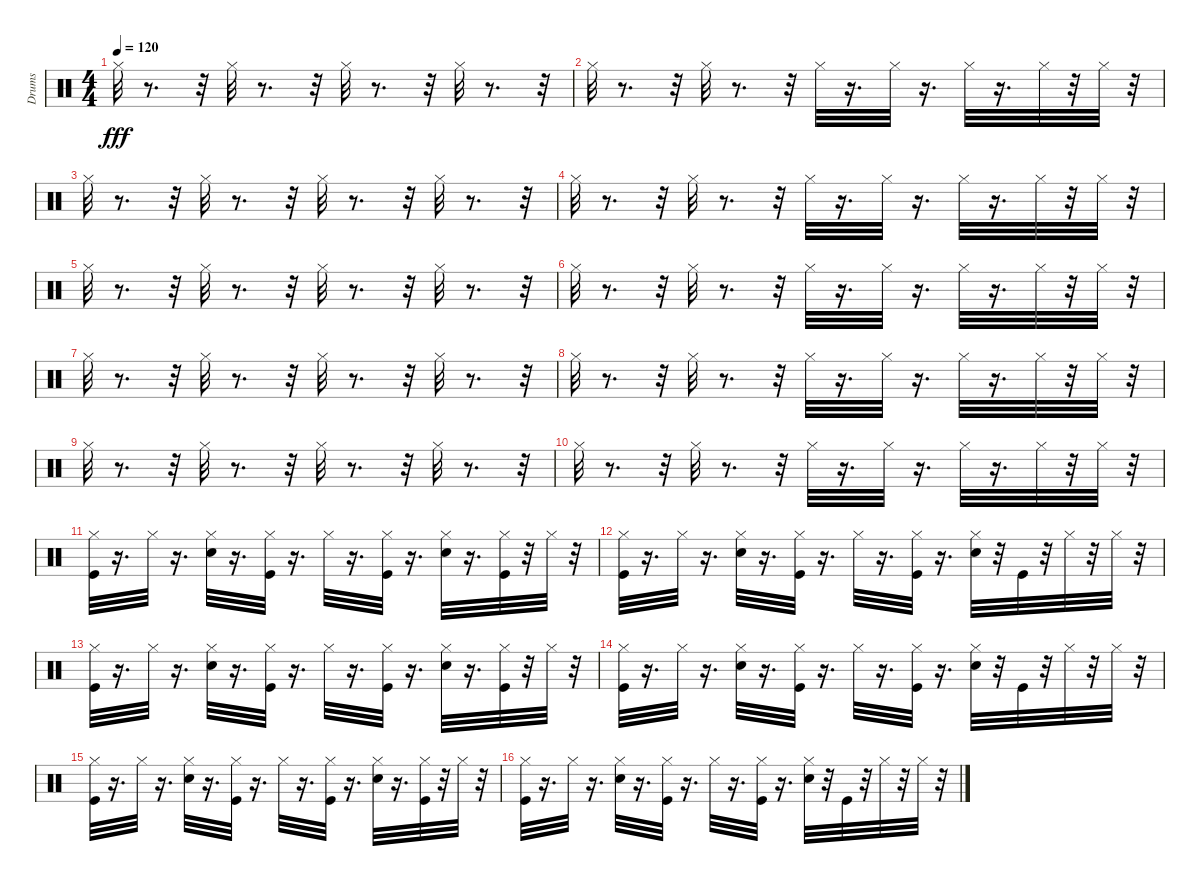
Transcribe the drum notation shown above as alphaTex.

\track ("Drums" "Drums") {solo instrument percussion}
\staff {score}
\articulation defaults
\ts (4 4)
\tempo 120
\clef neutral
\ks c "Hi-Hat (closed)".32{dy fff}
r.8{d} r.32 "Hi-Hat (closed)".32 r.8{d} r.32 "Hi-Hat (closed)".32 r.8{d} r.32 "Hi-Hat (closed)".32 r.8{d} r.32 |
"Hi-Hat (closed)".32 r.8{d} r.32 "Hi-Hat (closed)".32 r.8{d} r.32 "Hi-Hat (closed)".32 r.16{d} "Hi-Hat (closed)".32 r.16{d} "Hi-Hat (closed)".32 r.16{d} "Hi-Hat (closed)".32 r.32 "Hi-Hat (closed)".32 r.32 |
"Hi-Hat (closed)".32 r.8{d} r.32 "Hi-Hat (closed)".32 r.8{d} r.32 "Hi-Hat (closed)".32 r.8{d} r.32 "Hi-Hat (closed)".32 r.8{d} r.32 |
"Hi-Hat (closed)".32 r.8{d} r.32 "Hi-Hat (closed)".32 r.8{d} r.32 "Hi-Hat (closed)".32 r.16{d} "Hi-Hat (closed)".32 r.16{d} "Hi-Hat (closed)".32 r.16{d} "Hi-Hat (closed)".32 r.32 "Hi-Hat (closed)".32 r.32 |
"Hi-Hat (closed)".32 r.8{d} r.32 "Hi-Hat (closed)".32 r.8{d} r.32 "Hi-Hat (closed)".32 r.8{d} r.32 "Hi-Hat (closed)".32 r.8{d} r.32 |
"Hi-Hat (closed)".32 r.8{d} r.32 "Hi-Hat (closed)".32 r.8{d} r.32 "Hi-Hat (closed)".32 r.16{d} "Hi-Hat (closed)".32 r.16{d} "Hi-Hat (closed)".32 r.16{d} "Hi-Hat (closed)".32 r.32 "Hi-Hat (closed)".32 r.32 |
"Hi-Hat (closed)".32 r.8{d} r.32 "Hi-Hat (closed)".32 r.8{d} r.32 "Hi-Hat (closed)".32 r.8{d} r.32 "Hi-Hat (closed)".32 r.8{d} r.32 |
"Hi-Hat (closed)".32 r.8{d} r.32 "Hi-Hat (closed)".32 r.8{d} r.32 "Hi-Hat (closed)".32 r.16{d} "Hi-Hat (closed)".32 r.16{d} "Hi-Hat (closed)".32 r.16{d} "Hi-Hat (closed)".32 r.32 "Hi-Hat (closed)".32 r.32 |
"Hi-Hat (closed)".32 r.8{d} r.32 "Hi-Hat (closed)".32 r.8{d} r.32 "Hi-Hat (closed)".32 r.8{d} r.32 "Hi-Hat (closed)".32 r.8{d} r.32 |
"Hi-Hat (closed)".32 r.8{d} r.32 "Hi-Hat (closed)".32 r.8{d} r.32 "Hi-Hat (closed)".32 r.16{d} "Hi-Hat (closed)".32 r.16{d} "Hi-Hat (closed)".32 r.16{d} "Hi-Hat (closed)".32 r.32 "Hi-Hat (closed)".32 r.32 |
("Kick (hit)" "Hi-Hat (closed)").32 r.16{d} "Hi-Hat (closed)".32 r.16{d} ("Snare (hit) 2" "Hi-Hat (closed)").32 r.16{d} ("Kick (hit)" "Hi-Hat (closed)").32 r.16{d} "Hi-Hat (closed)".32 r.16{d} ("Kick (hit)" "Hi-Hat (closed)").32 r.16{d} ("Snare (hit) 2" "Hi-Hat (closed)").32 r.16{d} ("Kick (hit)" "Hi-Hat (closed)").32 r.32 "Hi-Hat (closed)".32 r.32 |
("Kick (hit)" "Hi-Hat (closed)").32 r.16{d} "Hi-Hat (closed)".32 r.16{d} ("Snare (hit) 2" "Hi-Hat (closed)").32 r.16{d} ("Kick (hit)" "Hi-Hat (closed)").32 r.16{d} "Hi-Hat (closed)".32 r.16{d} ("Kick (hit)" "Hi-Hat (closed)").32 r.16{d} ("Snare (hit) 2" "Hi-Hat (closed)").32 r.32 "Kick (hit)".32 r.32 "Hi-Hat (closed)".32 r.32 "Hi-Hat (closed)".32 r.32 |
("Kick (hit)" "Hi-Hat (closed)").32 r.16{d} "Hi-Hat (closed)".32 r.16{d} ("Snare (hit) 2" "Hi-Hat (closed)").32 r.16{d} ("Kick (hit)" "Hi-Hat (closed)").32 r.16{d} "Hi-Hat (closed)".32 r.16{d} ("Kick (hit)" "Hi-Hat (closed)").32 r.16{d} ("Snare (hit) 2" "Hi-Hat (closed)").32 r.16{d} ("Kick (hit)" "Hi-Hat (closed)").32 r.32 "Hi-Hat (closed)".32 r.32 |
("Kick (hit)" "Hi-Hat (closed)").32 r.16{d} "Hi-Hat (closed)".32 r.16{d} ("Snare (hit) 2" "Hi-Hat (closed)").32 r.16{d} ("Kick (hit)" "Hi-Hat (closed)").32 r.16{d} "Hi-Hat (closed)".32 r.16{d} ("Kick (hit)" "Hi-Hat (closed)").32 r.16{d} ("Snare (hit) 2" "Hi-Hat (closed)").32 r.32 "Kick (hit)".32 r.32 "Hi-Hat (closed)".32 r.32 "Hi-Hat (closed)".32 r.32 |
("Kick (hit)" "Hi-Hat (closed)").32 r.16{d} "Hi-Hat (closed)".32 r.16{d} ("Snare (hit) 2" "Hi-Hat (closed)").32 r.16{d} ("Kick (hit)" "Hi-Hat (closed)").32 r.16{d} "Hi-Hat (closed)".32 r.16{d} ("Kick (hit)" "Hi-Hat (closed)").32 r.16{d} ("Snare (hit) 2" "Hi-Hat (closed)").32 r.16{d} ("Kick (hit)" "Hi-Hat (closed)").32 r.32 "Hi-Hat (closed)".32 r.32 |
("Kick (hit)" "Hi-Hat (closed)").32 r.16{d} "Hi-Hat (closed)".32 r.16{d} ("Snare (hit) 2" "Hi-Hat (closed)").32 r.16{d} ("Kick (hit)" "Hi-Hat (closed)").32 r.16{d} "Hi-Hat (closed)".32 r.16{d} ("Kick (hit)" "Hi-Hat (closed)").32 r.16{d} ("Snare (hit) 2" "Hi-Hat (closed)").32 r.32 "Kick (hit)".32 r.32 "Hi-Hat (closed)".32 r.32 "Hi-Hat (closed)".32 r.32
